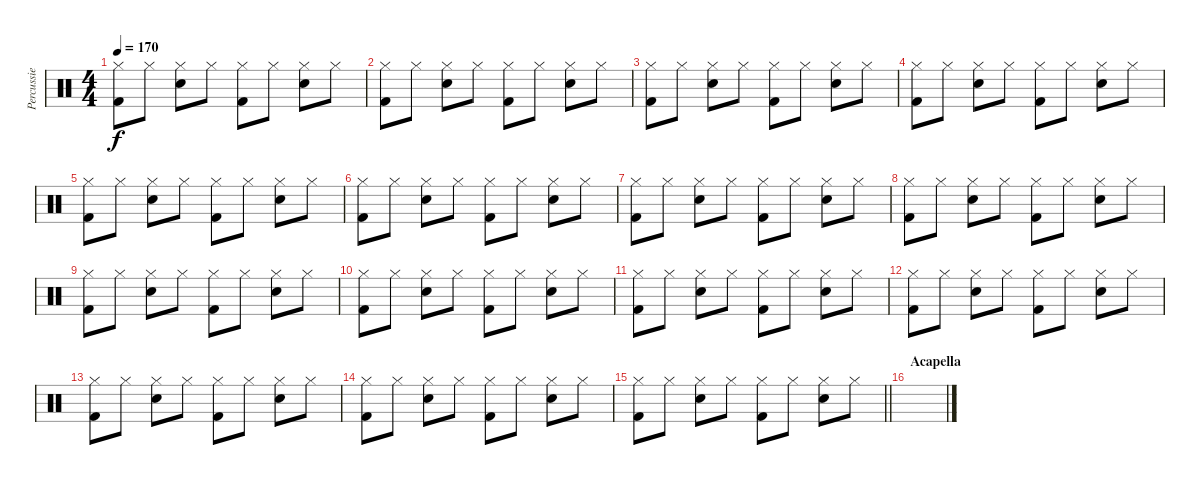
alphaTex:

\track ("Percussie" "Percussie") {instrument percussion}
\staff {score}
\articulation defaults
\ts (4 4)
\tempo 170
\clef neutral
\ks c
("Hi-Hat (closed)" "Kick (hit) 2").8{dy f} "Hi-Hat (closed)".8 ("Hi-Hat (closed)" "Electric Snare (hit)").8 "Hi-Hat (closed)".8 ("Hi-Hat (closed)" "Kick (hit) 2").8 "Hi-Hat (closed)".8 ("Hi-Hat (closed)" "Electric Snare (hit)").8 "Hi-Hat (closed)".8 |
("Hi-Hat (closed)" "Kick (hit) 2").8 "Hi-Hat (closed)".8 ("Hi-Hat (closed)" "Electric Snare (hit)").8 "Hi-Hat (closed)".8 ("Hi-Hat (closed)" "Kick (hit) 2").8 "Hi-Hat (closed)".8 ("Hi-Hat (closed)" "Electric Snare (hit)").8 "Hi-Hat (closed)".8 |
("Hi-Hat (closed)" "Kick (hit) 2").8 "Hi-Hat (closed)".8 ("Hi-Hat (closed)" "Electric Snare (hit)").8 "Hi-Hat (closed)".8 ("Hi-Hat (closed)" "Kick (hit) 2").8 "Hi-Hat (closed)".8 ("Hi-Hat (closed)" "Electric Snare (hit)").8 "Hi-Hat (closed)".8 |
("Hi-Hat (closed)" "Kick (hit) 2").8 "Hi-Hat (closed)".8 ("Hi-Hat (closed)" "Electric Snare (hit)").8 "Hi-Hat (closed)".8 ("Hi-Hat (closed)" "Kick (hit) 2").8 "Hi-Hat (closed)".8 ("Hi-Hat (closed)" "Electric Snare (hit)").8 "Hi-Hat (closed)".8 |
("Hi-Hat (closed)" "Kick (hit) 2").8 "Hi-Hat (closed)".8 ("Hi-Hat (closed)" "Electric Snare (hit)").8 "Hi-Hat (closed)".8 ("Hi-Hat (closed)" "Kick (hit) 2").8 "Hi-Hat (closed)".8 ("Hi-Hat (closed)" "Electric Snare (hit)").8 "Hi-Hat (closed)".8 |
("Hi-Hat (closed)" "Kick (hit) 2").8 "Hi-Hat (closed)".8 ("Hi-Hat (closed)" "Electric Snare (hit)").8 "Hi-Hat (closed)".8 ("Hi-Hat (closed)" "Kick (hit) 2").8 "Hi-Hat (closed)".8 ("Hi-Hat (closed)" "Electric Snare (hit)").8 "Hi-Hat (closed)".8 |
("Hi-Hat (closed)" "Kick (hit) 2").8 "Hi-Hat (closed)".8 ("Hi-Hat (closed)" "Electric Snare (hit)").8 "Hi-Hat (closed)".8 ("Hi-Hat (closed)" "Kick (hit) 2").8 "Hi-Hat (closed)".8 ("Hi-Hat (closed)" "Electric Snare (hit)").8 "Hi-Hat (closed)".8 |
("Hi-Hat (closed)" "Kick (hit) 2").8 "Hi-Hat (closed)".8 ("Hi-Hat (closed)" "Electric Snare (hit)").8 "Hi-Hat (closed)".8 ("Hi-Hat (closed)" "Kick (hit) 2").8 "Hi-Hat (closed)".8 ("Hi-Hat (closed)" "Electric Snare (hit)").8 "Hi-Hat (closed)".8 |
("Hi-Hat (closed)" "Kick (hit) 2").8 "Hi-Hat (closed)".8 ("Hi-Hat (closed)" "Electric Snare (hit)").8 "Hi-Hat (closed)".8 ("Hi-Hat (closed)" "Kick (hit) 2").8 "Hi-Hat (closed)".8 ("Hi-Hat (closed)" "Electric Snare (hit)").8 "Hi-Hat (closed)".8 |
("Hi-Hat (closed)" "Kick (hit) 2").8 "Hi-Hat (closed)".8 ("Hi-Hat (closed)" "Electric Snare (hit)").8 "Hi-Hat (closed)".8 ("Hi-Hat (closed)" "Kick (hit) 2").8 "Hi-Hat (closed)".8 ("Hi-Hat (closed)" "Electric Snare (hit)").8 "Hi-Hat (closed)".8 |
("Hi-Hat (closed)" "Kick (hit) 2").8 "Hi-Hat (closed)".8 ("Hi-Hat (closed)" "Electric Snare (hit)").8 "Hi-Hat (closed)".8 ("Hi-Hat (closed)" "Kick (hit) 2").8 "Hi-Hat (closed)".8 ("Hi-Hat (closed)" "Electric Snare (hit)").8 "Hi-Hat (closed)".8 |
("Hi-Hat (closed)" "Kick (hit) 2").8 "Hi-Hat (closed)".8 ("Hi-Hat (closed)" "Electric Snare (hit)").8 "Hi-Hat (closed)".8 ("Hi-Hat (closed)" "Kick (hit) 2").8 "Hi-Hat (closed)".8 ("Hi-Hat (closed)" "Electric Snare (hit)").8 "Hi-Hat (closed)".8 |
("Hi-Hat (closed)" "Kick (hit) 2").8 "Hi-Hat (closed)".8 ("Hi-Hat (closed)" "Electric Snare (hit)").8 "Hi-Hat (closed)".8 ("Hi-Hat (closed)" "Kick (hit) 2").8 "Hi-Hat (closed)".8 ("Hi-Hat (closed)" "Electric Snare (hit)").8 "Hi-Hat (closed)".8 |
("Hi-Hat (closed)" "Kick (hit) 2").8 "Hi-Hat (closed)".8 ("Hi-Hat (closed)" "Electric Snare (hit)").8 "Hi-Hat (closed)".8 ("Hi-Hat (closed)" "Kick (hit) 2").8 "Hi-Hat (closed)".8 ("Hi-Hat (closed)" "Electric Snare (hit)").8 "Hi-Hat (closed)".8 |
\barLineRight lightlight
("Hi-Hat (closed)" "Kick (hit) 2").8 "Hi-Hat (closed)".8 ("Hi-Hat (closed)" "Electric Snare (hit)").8 "Hi-Hat (closed)".8 ("Hi-Hat (closed)" "Kick (hit) 2").8 "Hi-Hat (closed)".8 ("Hi-Hat (closed)" "Electric Snare (hit)").8 "Hi-Hat (closed)".8 |
\section ("" "Acapella")
